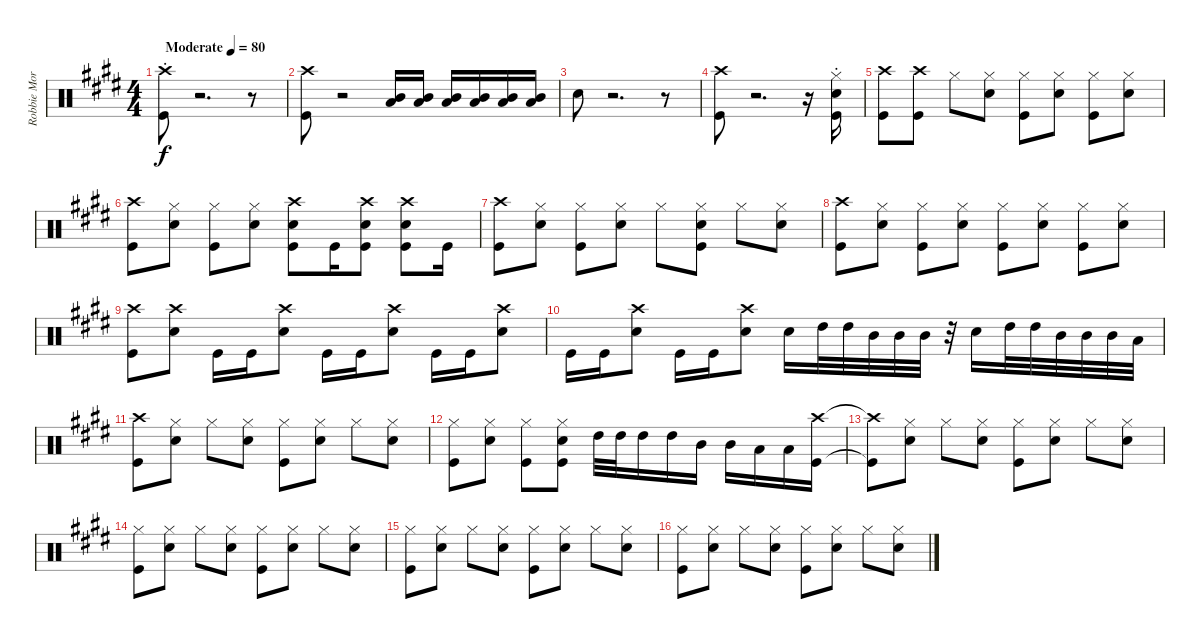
\track ("Robbie Morris Drums" "Robbie Mor") {instrument percussion}
\staff {score}
\articulation defaults
\ts (4 4)
\tempo (80 "Moderate")
\clef neutral
\ks e
("Crash high (hit)" "Kick (hit)"{st}).8{dy f} r.2{d} r.8 |
("Crash high (hit)" "Kick (hit)").8 r.2 ("Mid Tom (hit)" "Low Tom (hit)").16 ("Mid Tom (hit)" "Low Tom (hit)").16 ("Mid Tom (hit)" "Low Tom (hit)").16 ("Mid Tom (hit)" "Low Tom (hit)").16 ("Mid Tom (hit)" "Low Tom (hit)").16 ("Mid Tom (hit)" "Low Tom (hit)").16 |
"Snare (hit) 2".8 r.2{d} r.8 |
("Crash high (hit)" "Kick (hit)").8 r.2{d} r.16 ("Hi-Hat (closed)"{st} "Snare (hit) 2" "Kick (hit)").16 |
("Crash high (hit)" "Kick (hit)").8 ("Crash high (hit)" "Kick (hit)").8 "Hi-Hat (closed)".8 ("Hi-Hat (closed)" "Snare (hit) 2").8 ("Hi-Hat (closed)" "Kick (hit)").8 ("Hi-Hat (closed)" "Snare (hit) 2").8 ("Hi-Hat (closed)" "Kick (hit)").8 ("Hi-Hat (closed)" "Snare (hit) 2").8 |
("Crash high (hit)" "Kick (hit)").8 ("Hi-Hat (closed)" "Snare (hit) 2").8 ("Hi-Hat (closed)" "Kick (hit)").8 ("Hi-Hat (closed)" "Snare (hit) 2").8 ("Crash high (hit)" "Snare (hit) 2" "Kick (hit)").8 "Kick (hit)".16 ("Crash high (hit)" "Snare (hit) 2" "Kick (hit)").8 ("Crash high (hit)" "Snare (hit) 2" "Kick (hit)").8 "Kick (hit)".16 |
("Crash high (hit)" "Kick (hit)").8 ("Hi-Hat (closed)" "Snare (hit) 2").8 ("Hi-Hat (closed)" "Kick (hit)").8 ("Hi-Hat (closed)" "Snare (hit) 2").8 "Hi-Hat (closed)".8 ("Hi-Hat (closed)" "Snare (hit) 2" "Kick (hit)").8 "Hi-Hat (closed)".8 ("Hi-Hat (closed)" "Snare (hit) 2").8 |
("Crash high (hit)" "Kick (hit)").8 ("Hi-Hat (closed)" "Snare (hit) 2").8 ("Hi-Hat (closed)" "Kick (hit)").8 ("Hi-Hat (closed)" "Snare (hit) 2").8 ("Hi-Hat (closed)" "Kick (hit)").8 ("Hi-Hat (closed)" "Snare (hit) 2").8 ("Hi-Hat (closed)" "Kick (hit)").8 ("Hi-Hat (closed)" "Snare (hit) 2").8 |
("Crash high (hit)" "Kick (hit)").8 ("Crash high (hit)" "Snare (hit) 2").8 "Kick (hit)".16 "Kick (hit)".16 ("Crash high (hit)" "Snare (hit) 2").8 "Kick (hit)".16 "Kick (hit)".16 ("Crash high (hit)" "Snare (hit) 2").8 "Kick (hit)".16 "Kick (hit)".16 ("Crash high (hit)" "Snare (hit) 2").8 |
"Kick (hit)".16 "Kick (hit)".16 ("Crash high (hit)" "Snare (hit) 2").8 "Kick (hit)".16 "Kick (hit)".16 ("Crash high (hit)" "Snare (hit) 2").8 "Snare (hit) 2".16 "High Tom (hit)".32 "High Tom (hit)".32 "Mid Tom (hit)".32 "Mid Tom (hit)".32 "Mid Tom (hit)".32 r.32 "Snare (hit) 2".16 "High Tom (hit)".32 "High Tom (hit)".32 "Mid Tom (hit)".32 "Mid Tom (hit)".32 "Mid Tom (hit)".32 "Low Tom (hit)".32 |
("Crash high (hit)" "Kick (hit)").8 ("Hi-Hat (closed)" "Snare (hit) 2").8 "Hi-Hat (closed)".8 ("Hi-Hat (closed)" "Snare (hit) 2").8 ("Hi-Hat (closed)" "Kick (hit)").8 ("Hi-Hat (closed)" "Snare (hit) 2").8 "Hi-Hat (closed)".8 ("Hi-Hat (closed)" "Snare (hit) 2").8 |
("Hi-Hat (closed)" "Kick (hit)").8 ("Hi-Hat (closed)" "Snare (hit) 2").8 ("Hi-Hat (closed)" "Kick (hit)").8 ("Hi-Hat (closed)" "Snare (hit) 2" "Kick (hit)").8 "High Tom (hit)".32 "High Tom (hit)".32 "High Tom (hit)".16 "High Tom (hit)".16 "Mid Tom (hit)".16 "Mid Tom (hit)".16 "Low Tom (hit)".16 "Low Tom (hit)".16 ("Crash high (hit)" "Kick (hit)").16 |
("Crash high (hit)"{t} "Kick (hit)"{t}).8 ("Hi-Hat (closed)" "Snare (hit) 2").8 "Hi-Hat (closed)".8 ("Hi-Hat (closed)" "Snare (hit) 2").8 ("Hi-Hat (closed)" "Kick (hit)").8 ("Hi-Hat (closed)" "Snare (hit) 2").8 "Hi-Hat (closed)".8 ("Hi-Hat (closed)" "Snare (hit) 2").8 |
("Hi-Hat (closed)" "Kick (hit)").8 ("Hi-Hat (closed)" "Snare (hit) 2").8 "Hi-Hat (closed)".8 ("Hi-Hat (closed)" "Snare (hit) 2").8 ("Hi-Hat (closed)" "Kick (hit)").8 ("Hi-Hat (closed)" "Snare (hit) 2").8 "Hi-Hat (closed)".8 ("Hi-Hat (closed)" "Snare (hit) 2").8 |
("Hi-Hat (closed)" "Kick (hit)").8 ("Hi-Hat (closed)" "Snare (hit) 2").8 "Hi-Hat (closed)".8 ("Hi-Hat (closed)" "Snare (hit) 2").8 ("Hi-Hat (closed)" "Kick (hit)").8 ("Hi-Hat (closed)" "Snare (hit) 2").8 "Hi-Hat (closed)".8 ("Hi-Hat (closed)" "Snare (hit) 2").8 |
("Hi-Hat (closed)" "Kick (hit)").8 ("Hi-Hat (closed)" "Snare (hit) 2").8 "Hi-Hat (closed)".8 ("Hi-Hat (closed)" "Snare (hit) 2").8 ("Hi-Hat (closed)" "Kick (hit)").8 ("Hi-Hat (closed)" "Snare (hit) 2").8 "Hi-Hat (closed)".8 ("Hi-Hat (closed)" "Snare (hit) 2").8
